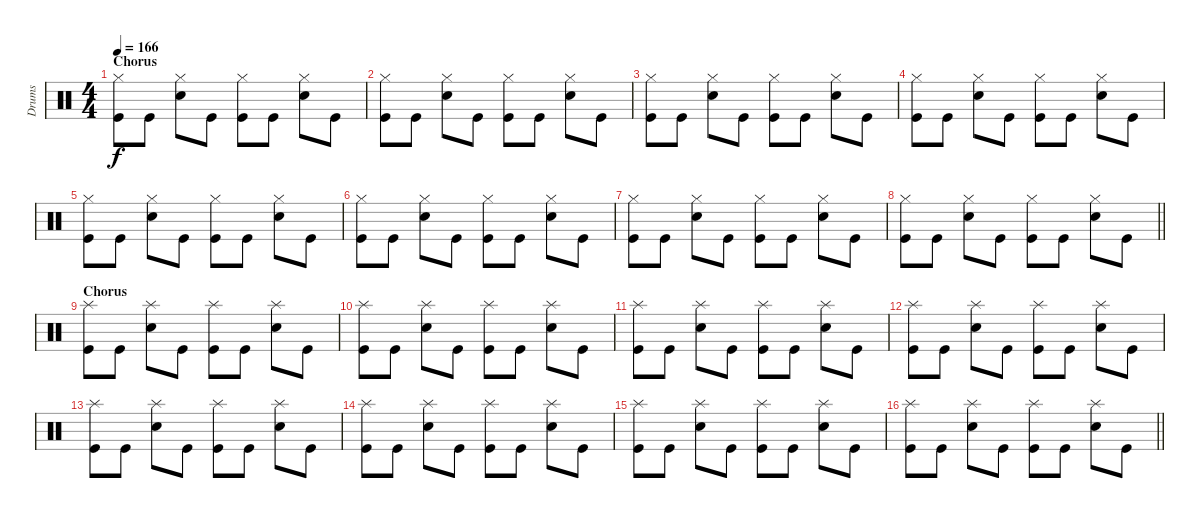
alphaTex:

\track ("Drums" "Drums") {instrument percussion}
\staff {score}
\articulation defaults
\ts (4 4)
\section ("" "Chorus")
\tempo 166
\clef neutral
\ks c
("Hi-Hat (closed)" "Kick (hit)").8{dy f} "Kick (hit)".8 ("Hi-Hat (closed)" "Electric Snare (hit)").8 "Kick (hit)".8 ("Hi-Hat (closed)" "Kick (hit)").8 "Kick (hit)".8 ("Hi-Hat (closed)" "Electric Snare (hit)").8 "Kick (hit)".8 |
("Hi-Hat (closed)" "Kick (hit)").8 "Kick (hit)".8 ("Hi-Hat (closed)" "Electric Snare (hit)").8 "Kick (hit)".8 ("Hi-Hat (closed)" "Kick (hit)").8 "Kick (hit)".8 ("Hi-Hat (closed)" "Electric Snare (hit)").8 "Kick (hit)".8 |
("Hi-Hat (closed)" "Kick (hit)").8 "Kick (hit)".8 ("Hi-Hat (closed)" "Electric Snare (hit)").8 "Kick (hit)".8 ("Hi-Hat (closed)" "Kick (hit)").8 "Kick (hit)".8 ("Hi-Hat (closed)" "Electric Snare (hit)").8 "Kick (hit)".8 |
("Hi-Hat (closed)" "Kick (hit)").8 "Kick (hit)".8 ("Hi-Hat (closed)" "Electric Snare (hit)").8 "Kick (hit)".8 ("Hi-Hat (closed)" "Kick (hit)").8 "Kick (hit)".8 ("Hi-Hat (closed)" "Electric Snare (hit)").8 "Kick (hit)".8 |
("Hi-Hat (closed)" "Kick (hit)").8 "Kick (hit)".8 ("Hi-Hat (closed)" "Electric Snare (hit)").8 "Kick (hit)".8 ("Hi-Hat (closed)" "Kick (hit)").8 "Kick (hit)".8 ("Hi-Hat (closed)" "Electric Snare (hit)").8 "Kick (hit)".8 |
("Hi-Hat (closed)" "Kick (hit)").8 "Kick (hit)".8 ("Hi-Hat (closed)" "Electric Snare (hit)").8 "Kick (hit)".8 ("Hi-Hat (closed)" "Kick (hit)").8 "Kick (hit)".8 ("Hi-Hat (closed)" "Electric Snare (hit)").8 "Kick (hit)".8 |
("Hi-Hat (closed)" "Kick (hit)").8 "Kick (hit)".8 ("Hi-Hat (closed)" "Electric Snare (hit)").8 "Kick (hit)".8 ("Hi-Hat (closed)" "Kick (hit)").8 "Kick (hit)".8 ("Hi-Hat (closed)" "Electric Snare (hit)").8 "Kick (hit)".8 |
\barLineRight lightlight
("Hi-Hat (closed)" "Kick (hit)").8 "Kick (hit)".8 ("Hi-Hat (closed)" "Electric Snare (hit)").8 "Kick (hit)".8 ("Hi-Hat (closed)" "Kick (hit)").8 "Kick (hit)".8 ("Hi-Hat (closed)" "Electric Snare (hit)").8 "Kick (hit)".8 |
\section ("" "Chorus")
("Splash (hit)" "Kick (hit)").8 "Kick (hit)".8 ("Splash (hit)" "Electric Snare (hit)").8 "Kick (hit)".8 ("Splash (hit)" "Kick (hit)").8 "Kick (hit)".8 ("Splash (hit)" "Electric Snare (hit)").8 "Kick (hit)".8 |
("Splash (hit)" "Kick (hit)").8 "Kick (hit)".8 ("Splash (hit)" "Electric Snare (hit)").8 "Kick (hit)".8 ("Splash (hit)" "Kick (hit)").8 "Kick (hit)".8 ("Splash (hit)" "Electric Snare (hit)").8 "Kick (hit)".8 |
("Splash (hit)" "Kick (hit)").8 "Kick (hit)".8 ("Splash (hit)" "Electric Snare (hit)").8 "Kick (hit)".8 ("Splash (hit)" "Kick (hit)").8 "Kick (hit)".8 ("Splash (hit)" "Electric Snare (hit)").8 "Kick (hit)".8 |
("Splash (hit)" "Kick (hit)").8 "Kick (hit)".8 ("Splash (hit)" "Electric Snare (hit)").8 "Kick (hit)".8 ("Splash (hit)" "Kick (hit)").8 "Kick (hit)".8 ("Splash (hit)" "Electric Snare (hit)").8 "Kick (hit)".8 |
("Splash (hit)" "Kick (hit)").8 "Kick (hit)".8 ("Splash (hit)" "Electric Snare (hit)").8 "Kick (hit)".8 ("Splash (hit)" "Kick (hit)").8 "Kick (hit)".8 ("Splash (hit)" "Electric Snare (hit)").8 "Kick (hit)".8 |
("Splash (hit)" "Kick (hit)").8 "Kick (hit)".8 ("Splash (hit)" "Electric Snare (hit)").8 "Kick (hit)".8 ("Splash (hit)" "Kick (hit)").8 "Kick (hit)".8 ("Splash (hit)" "Electric Snare (hit)").8 "Kick (hit)".8 |
("Splash (hit)" "Kick (hit)").8 "Kick (hit)".8 ("Splash (hit)" "Electric Snare (hit)").8 "Kick (hit)".8 ("Splash (hit)" "Kick (hit)").8 "Kick (hit)".8 ("Splash (hit)" "Electric Snare (hit)").8 "Kick (hit)".8 |
\barLineRight lightlight
("Splash (hit)" "Kick (hit)").8 "Kick (hit)".8 ("Splash (hit)" "Electric Snare (hit)").8 "Kick (hit)".8 ("Splash (hit)" "Kick (hit)").8 "Kick (hit)".8 ("Splash (hit)" "Electric Snare (hit)").8 "Kick (hit)".8
